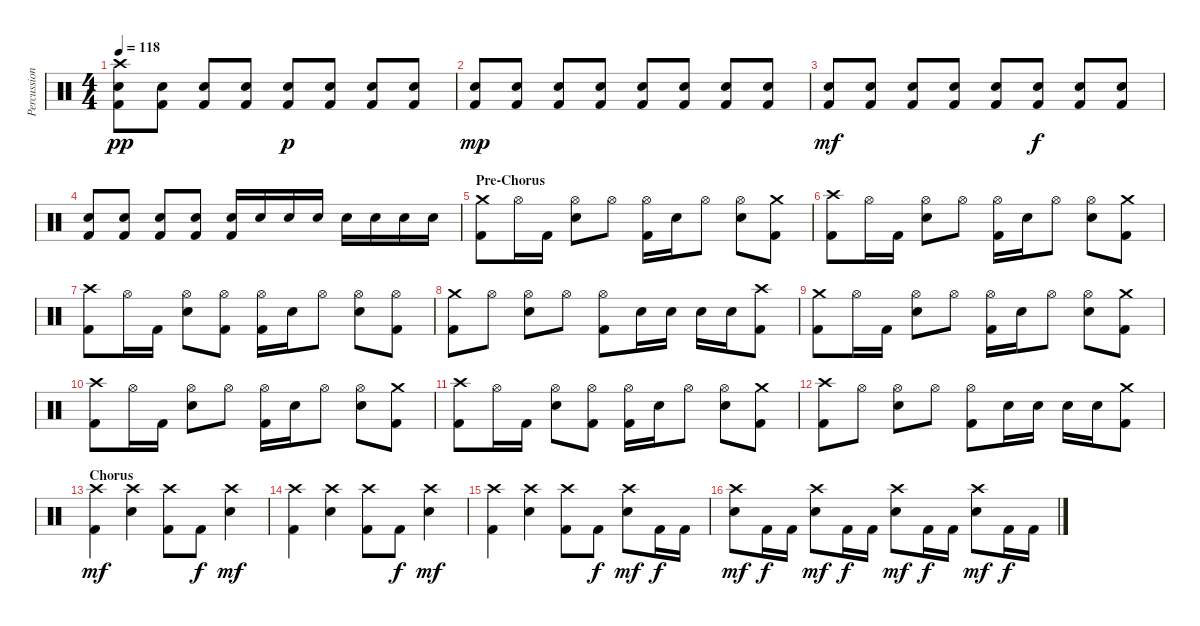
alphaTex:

\track ("Percussion" "Percussion") {instrument percussion}
\staff {score}
\articulation defaults
\ts (4 4)
\tempo 118
\clef neutral
\ks c
("Kick (hit) 2" "Snare (hit) 2" "Crash high (hit)").8{dy pp} ("Kick (hit) 2" "Snare (hit) 2").8 ("Kick (hit) 2" "Snare (hit) 2").8 ("Kick (hit) 2" "Snare (hit) 2").8 ("Kick (hit) 2" "Snare (hit) 2").8{dy p} ("Kick (hit) 2" "Snare (hit) 2").8 ("Kick (hit) 2" "Snare (hit) 2").8 ("Kick (hit) 2" "Snare (hit) 2").8 |
("Kick (hit) 2" "Snare (hit) 2").8{dy mp} ("Kick (hit) 2" "Snare (hit) 2").8 ("Kick (hit) 2" "Snare (hit) 2").8 ("Kick (hit) 2" "Snare (hit) 2").8 ("Kick (hit) 2" "Snare (hit) 2").8 ("Kick (hit) 2" "Snare (hit) 2").8 ("Kick (hit) 2" "Snare (hit) 2").8 ("Kick (hit) 2" "Snare (hit) 2").8 |
("Kick (hit) 2" "Snare (hit) 2").8{dy mf} ("Kick (hit) 2" "Snare (hit) 2").8 ("Kick (hit) 2" "Snare (hit) 2").8 ("Kick (hit) 2" "Snare (hit) 2").8 ("Kick (hit) 2" "Snare (hit) 2").8 ("Kick (hit) 2" "Snare (hit) 2").8{dy f} ("Kick (hit) 2" "Snare (hit) 2").8 ("Kick (hit) 2" "Snare (hit) 2").8 |
("Kick (hit) 2" "Snare (hit) 2").8 ("Kick (hit) 2" "Snare (hit) 2").8 ("Kick (hit) 2" "Snare (hit) 2").8 ("Kick (hit) 2" "Snare (hit) 2").8 ("Kick (hit) 2" "Electric Snare (hit)").16 "Electric Snare (hit)".16 "Electric Snare (hit)".16 "Electric Snare (hit)".16 "Electric Snare (hit)".16 "Electric Snare (hit)".16 "Electric Snare (hit)".16 "Electric Snare (hit)".16 |
\section ("" "Pre-Chorus")
("Kick (hit) 2" "Crash medium (hit)").8 "Hi-Hat (open)".16 "Kick (hit) 2".16 ("Electric Snare (hit)" "Hi-Hat (open)").8 "Hi-Hat (open)".8 ("Kick (hit) 2" "Hi-Hat (open)").16 "Electric Snare (hit)".16 "Hi-Hat (open)".8 ("Electric Snare (hit)" "Hi-Hat (open)").8 ("Kick (hit) 2" "Crash medium (hit)").8 |
("Kick (hit) 2" "Crash high (hit)").8 "Hi-Hat (open)".16 "Kick (hit) 2".16 ("Electric Snare (hit)" "Hi-Hat (open)").8 "Hi-Hat (open)".8 ("Kick (hit) 2" "Hi-Hat (open)").16 "Electric Snare (hit)".16 "Hi-Hat (open)".8 ("Electric Snare (hit)" "Hi-Hat (open)").8 ("Kick (hit) 2" "Crash medium (hit)").8 |
("Kick (hit) 2" "Crash high (hit)").8 "Hi-Hat (open)".16 "Kick (hit) 2".16 ("Electric Snare (hit)" "Hi-Hat (open)").8 ("Kick (hit) 2" "Hi-Hat (open)").8 ("Kick (hit) 2" "Hi-Hat (open)").16 "Electric Snare (hit)".16 "Hi-Hat (open)".8 ("Electric Snare (hit)" "Hi-Hat (open)").8 ("Kick (hit) 2" "Hi-Hat (open)").8 |
("Kick (hit) 2" "Crash medium (hit)").8 "Hi-Hat (open)".8 ("Electric Snare (hit)" "Hi-Hat (open)").8 "Hi-Hat (open)".8 ("Kick (hit) 2" "Hi-Hat (open)").8 "Electric Snare (hit)".16 "Electric Snare (hit)".16 "Electric Snare (hit)".16 "Electric Snare (hit)".16 ("Kick (hit) 2" "Crash high (hit)").8 |
("Kick (hit) 2" "Crash medium (hit)").8 "Hi-Hat (open)".16 "Kick (hit) 2".16 ("Electric Snare (hit)" "Hi-Hat (open)").8 "Hi-Hat (open)".8 ("Kick (hit) 2" "Hi-Hat (open)").16 "Electric Snare (hit)".16 "Hi-Hat (open)".8 ("Electric Snare (hit)" "Hi-Hat (open)").8 ("Kick (hit) 2" "Crash medium (hit)").8 |
("Kick (hit) 2" "Crash high (hit)").8 "Hi-Hat (open)".16 "Kick (hit) 2".16 ("Electric Snare (hit)" "Hi-Hat (open)").8 "Hi-Hat (open)".8 ("Kick (hit) 2" "Hi-Hat (open)").16 "Electric Snare (hit)".16 "Hi-Hat (open)".8 ("Electric Snare (hit)" "Hi-Hat (open)").8 ("Kick (hit) 2" "Crash medium (hit)").8 |
("Kick (hit) 2" "Crash high (hit)").8 "Hi-Hat (open)".16 "Kick (hit) 2".16 ("Electric Snare (hit)" "Hi-Hat (open)").8 ("Kick (hit) 2" "Hi-Hat (open)").8 ("Kick (hit) 2" "Hi-Hat (open)").16 "Electric Snare (hit)".16 "Hi-Hat (open)".8 ("Electric Snare (hit)" "Hi-Hat (open)").8 ("Kick (hit) 2" "Crash medium (hit)").8 |
("Kick (hit) 2" "Crash high (hit)").8 "Hi-Hat (open)".8 ("Electric Snare (hit)" "Hi-Hat (open)").8 "Hi-Hat (open)".8 ("Kick (hit) 2" "Hi-Hat (open)").8 "Electric Snare (hit)".16 "Electric Snare (hit)".16 "Electric Snare (hit)".16 "Electric Snare (hit)".16 ("Kick (hit) 2" "Crash medium (hit)").8 |
\section ("" "Chorus")
("Kick (hit) 2" "Crash high (hit)").4{dy mf} ("Electric Snare (hit)" "Crash high (hit)").4 ("Kick (hit) 2" "Crash high (hit)").8 "Kick (hit) 2".8{dy f} ("Electric Snare (hit)" "Crash high (hit)").4{dy mf} |
("Kick (hit) 2" "Crash high (hit)").4 ("Electric Snare (hit)" "Crash high (hit)").4 ("Kick (hit) 2" "Crash high (hit)").8 "Kick (hit) 2".8{dy f} ("Electric Snare (hit)" "Crash high (hit)").4{dy mf} |
("Kick (hit) 2" "Crash high (hit)").4 ("Electric Snare (hit)" "Crash high (hit)").4 ("Kick (hit) 2" "Crash high (hit)").8 "Kick (hit) 2".8{dy f} ("Electric Snare (hit)" "Crash high (hit)").8{dy mf} "Kick (hit) 2".16{dy f} "Kick (hit) 2".16 |
("Electric Snare (hit)" "Crash high (hit)").8{dy mf} "Kick (hit) 2".16{dy f} "Kick (hit) 2".16 ("Electric Snare (hit)" "Crash high (hit)").8{dy mf} "Kick (hit) 2".16{dy f} "Kick (hit) 2".16 ("Electric Snare (hit)" "Crash high (hit)").8{dy mf} "Kick (hit) 2".16{dy f} "Kick (hit) 2".16 ("Electric Snare (hit)" "Crash high (hit)").8{dy mf} "Kick (hit) 2".16{dy f} "Kick (hit) 2".16
